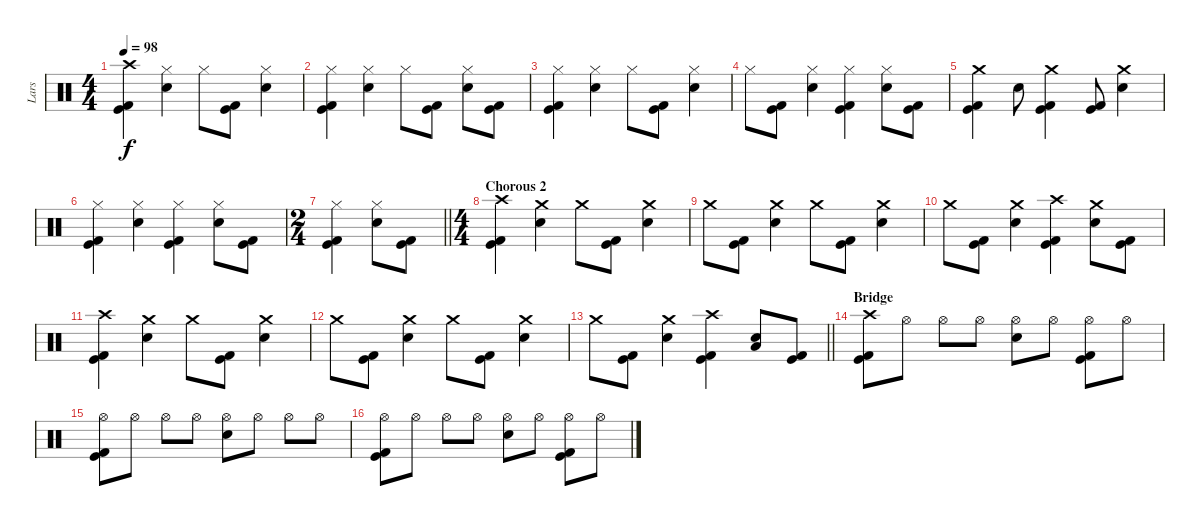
\track ("Lars" "Lars") {instrument percussion}
\staff {score}
\articulation defaults
\ts (4 4)
\section ("" "")
\tempo 98
\clef neutral
\ks c
("Crash high (hit)" "Kick (hit)" "Kick (hit) 2").4{dy f} ("Hi-Hat (closed)" "Electric Snare (hit)").4 "Hi-Hat (closed)".8 ("Kick (hit)" "Kick (hit) 2").8 ("Hi-Hat (closed)" "Electric Snare (hit)").4 |
("Hi-Hat (closed)" "Kick (hit)" "Kick (hit) 2").4 ("Hi-Hat (closed)" "Electric Snare (hit)").4 "Hi-Hat (closed)".8 ("Kick (hit)" "Kick (hit) 2").8 ("Hi-Hat (closed)" "Electric Snare (hit)").8 ("Kick (hit)" "Kick (hit) 2").8 |
("Hi-Hat (closed)" "Kick (hit)" "Kick (hit) 2").4 ("Hi-Hat (closed)" "Electric Snare (hit)").4 "Hi-Hat (closed)".8 ("Kick (hit)" "Kick (hit) 2").8 ("Hi-Hat (closed)" "Electric Snare (hit)").4 |
"Hi-Hat (closed)".8 ("Kick (hit)" "Kick (hit) 2").8 ("Hi-Hat (closed)" "Electric Snare (hit)").4 ("Hi-Hat (closed)" "Kick (hit)" "Kick (hit) 2").4 ("Hi-Hat (closed)" "Electric Snare (hit)").8 ("Kick (hit)" "Kick (hit) 2").8 |
("Crash medium (hit)" "Kick (hit)" "Kick (hit) 2").4 "Electric Snare (hit)".8 ("Crash medium (hit)" "Kick (hit)" "Kick (hit) 2").4 ("Kick (hit)" "Kick (hit) 2").8 ("Crash medium (hit)" "Electric Snare (hit)").4 |
("Hi-Hat (closed)" "Kick (hit)" "Kick (hit) 2").4 ("Hi-Hat (closed)" "Electric Snare (hit)").4 ("Hi-Hat (closed)" "Kick (hit)" "Kick (hit) 2").4 ("Hi-Hat (closed)" "Electric Snare (hit)").8 ("Kick (hit)" "Kick (hit) 2").8 |
\ts (2 4)
\barLineRight lightlight
("Hi-Hat (closed)" "Kick (hit)" "Kick (hit) 2").4 ("Hi-Hat (closed)" "Electric Snare (hit)").8 ("Kick (hit)" "Kick (hit) 2").8 |
\ts (4 4)
\section ("" "Chorous 2")
("Crash high (hit)" "Kick (hit)" "Kick (hit) 2").4 ("Crash medium (hit)" "Electric Snare (hit)").4 "Crash medium (hit)".8 ("Kick (hit)" "Kick (hit) 2").8 ("Crash medium (hit)" "Electric Snare (hit)").4 |
"Crash medium (hit)".8 ("Kick (hit)" "Kick (hit) 2").8 ("Crash medium (hit)" "Electric Snare (hit)").4 "Crash medium (hit)".8 ("Kick (hit)" "Kick (hit) 2").8 ("Crash medium (hit)" "Electric Snare (hit)").4 |
"Crash medium (hit)".8 ("Kick (hit)" "Kick (hit) 2").8 ("Crash medium (hit)" "Electric Snare (hit)").4 ("Crash high (hit)" "Kick (hit)" "Kick (hit) 2").4 ("Crash medium (hit)" "Electric Snare (hit)").8 ("Kick (hit)" "Kick (hit) 2").8 |
("Crash high (hit)" "Kick (hit)" "Kick (hit) 2").4 ("Crash medium (hit)" "Electric Snare (hit)").4 "Crash medium (hit)".8 ("Kick (hit)" "Kick (hit) 2").8 ("Crash medium (hit)" "Electric Snare (hit)").4 |
"Crash medium (hit)".8 ("Kick (hit)" "Kick (hit) 2").8 ("Crash medium (hit)" "Electric Snare (hit)").4 "Crash medium (hit)".8 ("Kick (hit)" "Kick (hit) 2").8 ("Crash medium (hit)" "Electric Snare (hit)").4 |
\barLineRight lightlight "Crash medium (hit)".8
("Kick (hit)" "Kick (hit) 2").8 ("Crash medium (hit)" "Electric Snare (hit)").4 ("Crash high (hit)" "Kick (hit)" "Kick (hit) 2").4 ("Electric Snare (hit)" "Low Floor Tom (hit)").8 ("Kick (hit)" "Kick (hit) 2").8 |
\section ("" "Bridge")
("Crash high (hit)" "Kick (hit)" "Kick (hit) 2").8 "Hi-Hat (open)".8 "Hi-Hat (open)".8 "Hi-Hat (open)".8 ("Hi-Hat (open)" "Electric Snare (hit)").8 "Hi-Hat (open)".8 ("Hi-Hat (open)" "Kick (hit)" "Kick (hit) 2").8 "Hi-Hat (open)".8 |
("Hi-Hat (open)" "Kick (hit)" "Kick (hit) 2").8 "Hi-Hat (open)".8 "Hi-Hat (open)".8 "Hi-Hat (open)".8 ("Hi-Hat (open)" "Electric Snare (hit)").8 "Hi-Hat (open)".8 "Hi-Hat (open)".8 "Hi-Hat (open)".8 |
("Hi-Hat (open)" "Kick (hit)" "Kick (hit) 2").8 "Hi-Hat (open)".8 "Hi-Hat (open)".8 "Hi-Hat (open)".8 ("Hi-Hat (open)" "Electric Snare (hit)").8 "Hi-Hat (open)".8 ("Hi-Hat (open)" "Kick (hit)" "Kick (hit) 2").8 "Hi-Hat (open)".8
